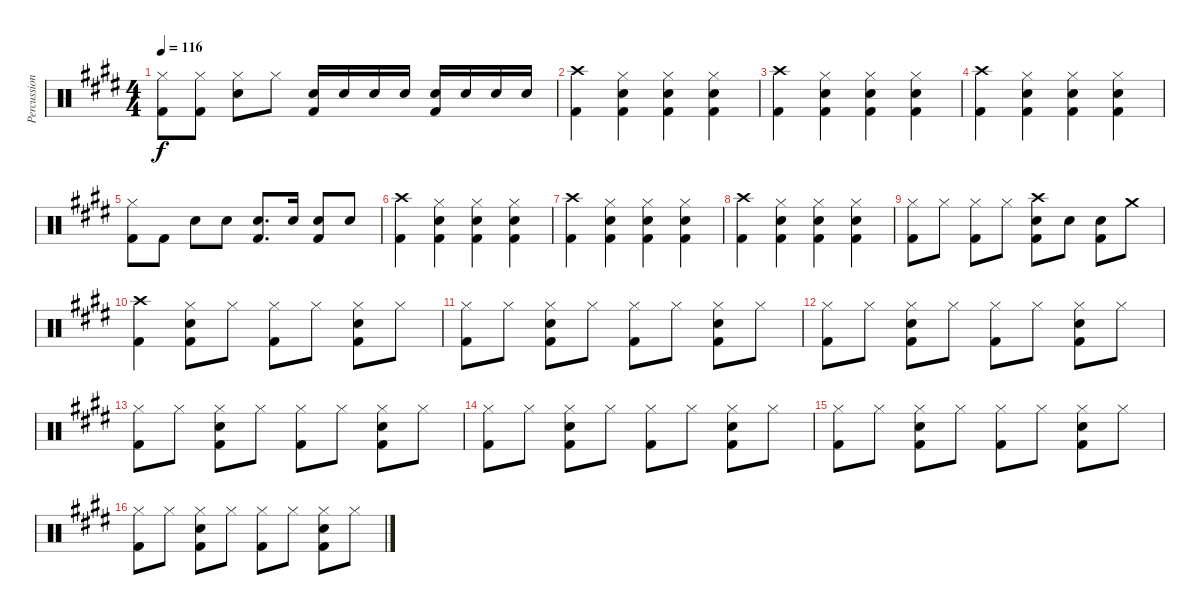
\track ("Percussion" "Percussion") {instrument percussion}
\staff {score}
\articulation defaults
\ts (4 4)
\tempo 116
\clef neutral
\ks e
("Hi-Hat (closed)" "Kick (hit) 2").8{dy f} ("Hi-Hat (closed)" "Kick (hit) 2").8 ("Hi-Hat (closed)" "Snare (hit) 2").8 "Hi-Hat (closed)".8 ("Snare (hit) 2" "Kick (hit) 2").16 "Snare (hit) 2".16 "Snare (hit) 2".16 "Snare (hit) 2".16 ("Snare (hit) 2" "Kick (hit) 2").16 "Snare (hit) 2".16 "Snare (hit) 2".16 "Snare (hit) 2".16 |
("Crash high (hit)" "Kick (hit) 2").4 ("Hi-Hat (closed)" "Snare (hit) 2" "Kick (hit) 2").4 ("Hi-Hat (closed)" "Snare (hit) 2" "Kick (hit) 2").4 ("Hi-Hat (closed)" "Snare (hit) 2" "Kick (hit) 2").4 |
("Crash high (hit)" "Kick (hit) 2").4 ("Hi-Hat (closed)" "Snare (hit) 2" "Kick (hit) 2").4 ("Hi-Hat (closed)" "Snare (hit) 2" "Kick (hit) 2").4 ("Hi-Hat (closed)" "Snare (hit) 2" "Kick (hit) 2").4 |
("Crash high (hit)" "Kick (hit) 2").4 ("Hi-Hat (closed)" "Snare (hit) 2" "Kick (hit) 2").4 ("Hi-Hat (closed)" "Snare (hit) 2" "Kick (hit) 2").4 ("Hi-Hat (closed)" "Snare (hit) 2" "Kick (hit) 2").4 |
("Hi-Hat (closed)" "Kick (hit) 2").8 "Kick (hit) 2".8 "Snare (hit) 2".8 "Snare (hit) 2".8 ("Snare (hit) 2" "Kick (hit) 2").8{d} "Snare (hit) 2".16 ("Snare (hit) 2" "Kick (hit) 2").8 "Snare (hit) 2".8 |
("Crash high (hit)" "Kick (hit) 2").4 ("Hi-Hat (closed)" "Snare (hit) 2" "Kick (hit) 2").4 ("Hi-Hat (closed)" "Snare (hit) 2" "Kick (hit) 2").4 ("Hi-Hat (closed)" "Snare (hit) 2" "Kick (hit) 2").4 |
("Crash high (hit)" "Kick (hit) 2").4 ("Hi-Hat (closed)" "Snare (hit) 2" "Kick (hit) 2").4 ("Hi-Hat (closed)" "Snare (hit) 2" "Kick (hit) 2").4 ("Hi-Hat (closed)" "Snare (hit) 2" "Kick (hit) 2").4 |
("Crash high (hit)" "Kick (hit) 2").4 ("Hi-Hat (closed)" "Snare (hit) 2" "Kick (hit) 2").4 ("Hi-Hat (closed)" "Snare (hit) 2" "Kick (hit) 2").4 ("Hi-Hat (closed)" "Snare (hit) 2" "Kick (hit) 2").4 |
("Hi-Hat (closed)" "Kick (hit) 2").8 "Hi-Hat (closed)".8 ("Hi-Hat (closed)" "Kick (hit) 2").8 "Hi-Hat (closed)".8 ("Crash high (hit)" "Snare (hit) 2" "Kick (hit) 2").8 "Snare (hit) 2".8 ("Snare (hit) 2" "Kick (hit) 2").8 "Crash medium (hit)".8 |
("Crash high (hit)" "Kick (hit) 2").4 ("Hi-Hat (closed)" "Snare (hit) 2" "Kick (hit) 2").8 "Hi-Hat (closed)".8 ("Hi-Hat (closed)" "Kick (hit) 2").8 "Hi-Hat (closed)".8 ("Hi-Hat (closed)" "Snare (hit) 2" "Kick (hit) 2").8 "Hi-Hat (closed)".8 |
("Hi-Hat (closed)" "Kick (hit) 2").8 "Hi-Hat (closed)".8 ("Hi-Hat (closed)" "Snare (hit) 2" "Kick (hit) 2").8 "Hi-Hat (closed)".8 ("Hi-Hat (closed)" "Kick (hit) 2").8 "Hi-Hat (closed)".8 ("Hi-Hat (closed)" "Snare (hit) 2" "Kick (hit) 2").8 "Hi-Hat (closed)".8 |
("Hi-Hat (closed)" "Kick (hit) 2").8 "Hi-Hat (closed)".8 ("Hi-Hat (closed)" "Snare (hit) 2" "Kick (hit) 2").8 "Hi-Hat (closed)".8 ("Hi-Hat (closed)" "Kick (hit) 2").8 "Hi-Hat (closed)".8 ("Hi-Hat (closed)" "Snare (hit) 2" "Kick (hit) 2").8 "Hi-Hat (closed)".8 |
("Hi-Hat (closed)" "Kick (hit) 2").8 "Hi-Hat (closed)".8 ("Hi-Hat (closed)" "Snare (hit) 2" "Kick (hit) 2").8 "Hi-Hat (closed)".8 ("Hi-Hat (closed)" "Kick (hit) 2").8 "Hi-Hat (closed)".8 ("Hi-Hat (closed)" "Snare (hit) 2" "Kick (hit) 2").8 "Hi-Hat (closed)".8 |
("Hi-Hat (closed)" "Kick (hit) 2").8 "Hi-Hat (closed)".8 ("Hi-Hat (closed)" "Snare (hit) 2" "Kick (hit) 2").8 "Hi-Hat (closed)".8 ("Hi-Hat (closed)" "Kick (hit) 2").8 "Hi-Hat (closed)".8 ("Hi-Hat (closed)" "Snare (hit) 2" "Kick (hit) 2").8 "Hi-Hat (closed)".8 |
("Hi-Hat (closed)" "Kick (hit) 2").8 "Hi-Hat (closed)".8 ("Hi-Hat (closed)" "Snare (hit) 2" "Kick (hit) 2").8 "Hi-Hat (closed)".8 ("Hi-Hat (closed)" "Kick (hit) 2").8 "Hi-Hat (closed)".8 ("Hi-Hat (closed)" "Snare (hit) 2" "Kick (hit) 2").8 "Hi-Hat (closed)".8 |
("Hi-Hat (closed)" "Kick (hit) 2").8 "Hi-Hat (closed)".8 ("Hi-Hat (closed)" "Snare (hit) 2" "Kick (hit) 2").8 "Hi-Hat (closed)".8 ("Hi-Hat (closed)" "Kick (hit) 2").8 "Hi-Hat (closed)".8 ("Hi-Hat (closed)" "Snare (hit) 2" "Kick (hit) 2").8 "Hi-Hat (closed)".8
